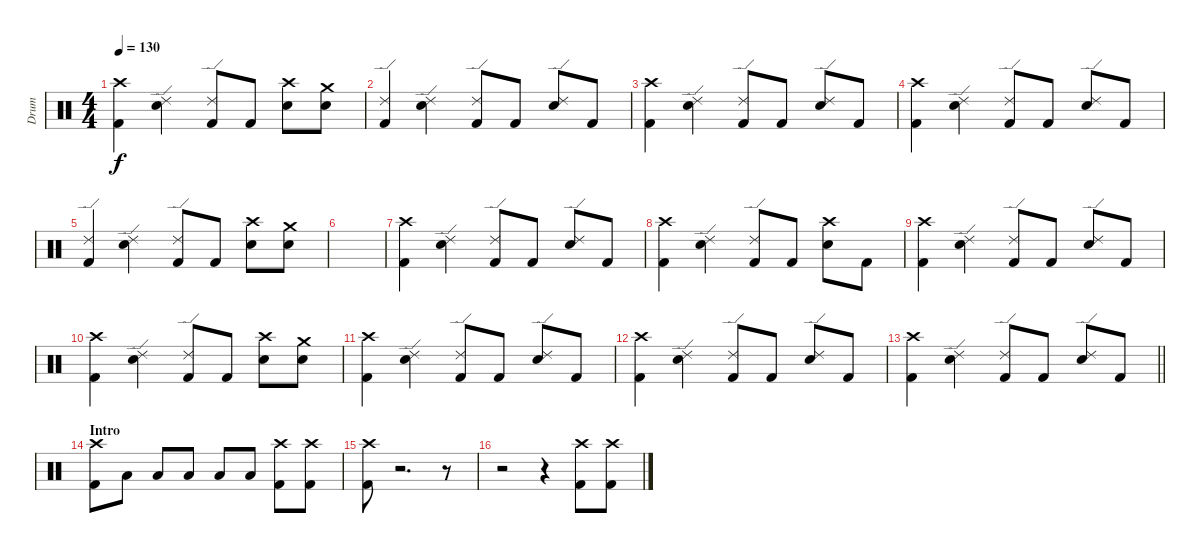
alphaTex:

\track ("Drum" "Drum") {instrument percussion}
\staff {score}
\articulation defaults
\ts (4 4)
\tempo 130
\clef neutral
\ks c
("Crash high (hit)" "Kick (hit) 2").4{dy f} ("Ride (edge) 2" "Electric Snare (hit)").4 ("Ride (edge) 2" "Kick (hit) 2").8 "Kick (hit) 2".8 ("Crash high (hit)" "Electric Snare (hit)").8 ("Crash medium (hit)" "Electric Snare (hit)").8 |
("Ride (edge) 2" "Kick (hit) 2").4 ("Ride (edge) 2" "Electric Snare (hit)").4 ("Ride (edge) 2" "Kick (hit) 2").8 "Kick (hit) 2".8 ("Ride (edge) 2" "Electric Snare (hit)").8 "Kick (hit) 2".8 |
("Crash high (hit)" "Kick (hit) 2").4 ("Ride (edge) 2" "Electric Snare (hit)").4 ("Ride (edge) 2" "Kick (hit) 2").8 "Kick (hit) 2".8 ("Ride (edge) 2" "Electric Snare (hit)").8 "Kick (hit) 2".8 |
("Crash high (hit)" "Kick (hit) 2").4 ("Ride (edge) 2" "Electric Snare (hit)").4 ("Ride (edge) 2" "Kick (hit) 2").8 "Kick (hit) 2".8 ("Ride (edge) 2" "Electric Snare (hit)").8 "Kick (hit) 2".8 |
("Ride (edge) 2" "Kick (hit) 2").4 ("Ride (edge) 2" "Electric Snare (hit)").4 ("Ride (edge) 2" "Kick (hit) 2").8 "Kick (hit) 2".8 ("Crash high (hit)" "Electric Snare (hit)").8 ("Crash medium (hit)" "Electric Snare (hit)").8 |
|
("Crash high (hit)" "Kick (hit) 2").4 ("Ride (edge) 2" "Electric Snare (hit)").4 ("Ride (edge) 2" "Kick (hit) 2").8 "Kick (hit) 2".8 ("Ride (edge) 2" "Electric Snare (hit)").8 "Kick (hit) 2".8 |
("Crash high (hit)" "Kick (hit) 2").4 ("Ride (edge) 2" "Electric Snare (hit)").4 ("Ride (edge) 2" "Kick (hit) 2").8 "Kick (hit) 2".8 ("Crash high (hit)" "Electric Snare (hit)").8 "Kick (hit) 2".8 |
("Crash high (hit)" "Kick (hit) 2").4 ("Ride (edge) 2" "Electric Snare (hit)").4 ("Ride (edge) 2" "Kick (hit) 2").8 "Kick (hit) 2".8 ("Ride (edge) 2" "Electric Snare (hit)").8 "Kick (hit) 2".8 |
("Crash high (hit)" "Kick (hit) 2").4 ("Ride (edge) 2" "Electric Snare (hit)").4 ("Ride (edge) 2" "Kick (hit) 2").8 "Kick (hit) 2".8 ("Crash high (hit)" "Electric Snare (hit)").8 ("Crash medium (hit)" "Electric Snare (hit)").8 |
("Crash high (hit)" "Kick (hit) 2").4 ("Ride (edge) 2" "Electric Snare (hit)").4 ("Ride (edge) 2" "Kick (hit) 2").8 "Kick (hit) 2".8 ("Ride (edge) 2" "Electric Snare (hit)").8 "Kick (hit) 2".8 |
("Crash high (hit)" "Kick (hit) 2").4 ("Ride (edge) 2" "Electric Snare (hit)").4 ("Ride (edge) 2" "Kick (hit) 2").8 "Kick (hit) 2".8 ("Ride (edge) 2" "Electric Snare (hit)").8 "Kick (hit) 2".8 |
\barLineRight lightlight
("Crash high (hit)" "Kick (hit) 2").4 ("Ride (edge) 2" "Electric Snare (hit)").4 ("Ride (edge) 2" "Kick (hit) 2").8 "Kick (hit) 2".8 ("Ride (edge) 2" "Electric Snare (hit)").8 "Kick (hit) 2".8 |
\section ("" "Intro")
("Crash high (hit)" "Kick (hit) 2").8 "Low Tom (hit)".8 "Low Tom (hit)".8 "Low Tom (hit)".8 "Low Tom (hit)".8 "Low Tom (hit)".8 ("Crash high (hit)" "Kick (hit) 2").8 ("Crash high (hit)" "Kick (hit) 2").8 |
("Crash high (hit)" "Kick (hit) 2").8 r.2{d} r.8 |
r.2 r.4 ("Crash high (hit)" "Kick (hit) 2").8 ("Crash high (hit)" "Kick (hit) 2").8
